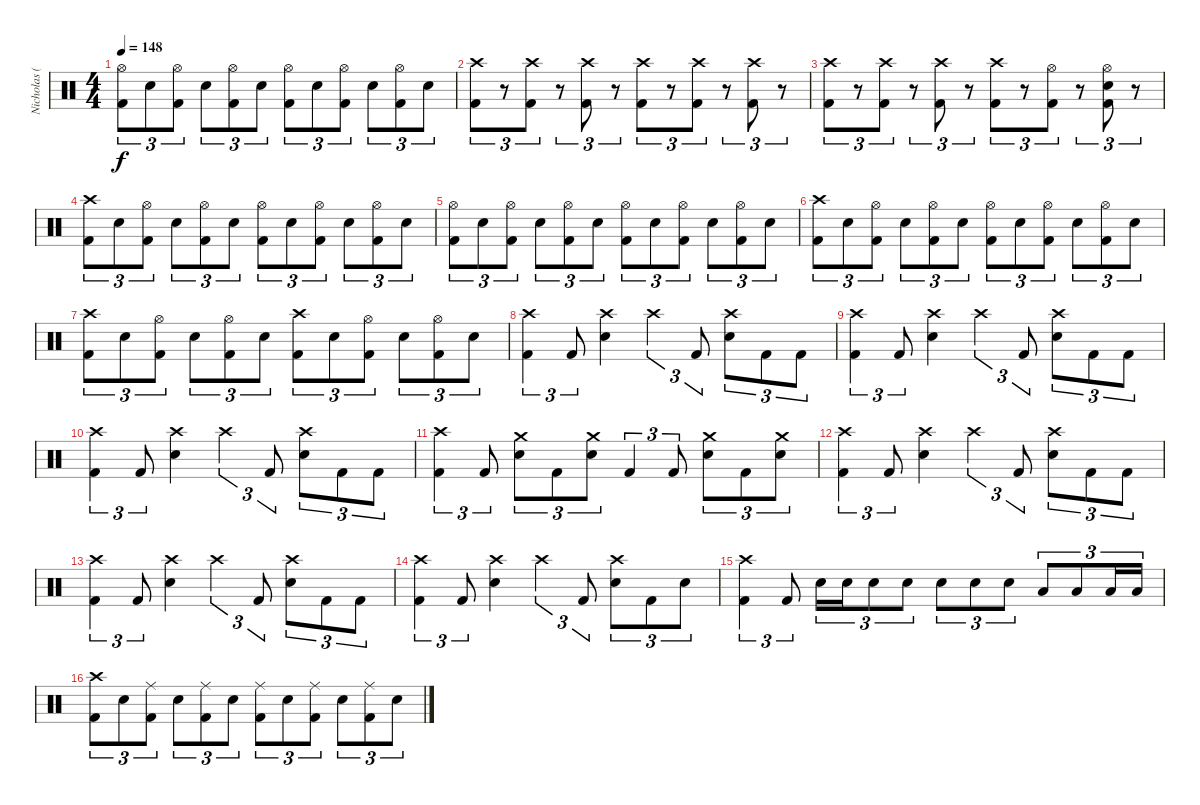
\track ("Nicholas (Drums)" "Nicholas (") {instrument percussion}
\staff {score}
\articulation defaults
\ts (4 4)
\tempo 148
\clef neutral
\ks c
("Hi-Hat (open)" "Kick (hit) 2").8{tu (3 2) dy f} "Electric Snare (hit)".8{tu (3 2)} ("Hi-Hat (open)" "Kick (hit) 2").8{tu (3 2)} "Electric Snare (hit)".8{tu (3 2)} ("Hi-Hat (open)" "Kick (hit) 2").8{tu (3 2)} "Electric Snare (hit)".8{tu (3 2)} ("Hi-Hat (open)" "Kick (hit) 2").8{tu (3 2)} "Electric Snare (hit)".8{tu (3 2)} ("Hi-Hat (open)" "Kick (hit) 2").8{tu (3 2)} "Electric Snare (hit)".8{tu (3 2)} ("Hi-Hat (open)" "Kick (hit) 2").8{tu (3 2)} "Electric Snare (hit)".8{tu (3 2)} |
("Crash high (hit)" "Kick (hit) 2").8{tu (3 2)} r.8{tu (3 2)} ("Crash high (hit)" "Kick (hit) 2").8{tu (3 2)} r.8{tu (3 2)} ("Crash high (hit)" "Kick (hit) 2").8{tu (3 2)} r.8{tu (3 2)} ("Crash high (hit)" "Kick (hit) 2").8{tu (3 2)} r.8{tu (3 2)} ("Crash high (hit)" "Kick (hit) 2").8{tu (3 2)} r.8{tu (3 2)} ("Crash high (hit)" "Kick (hit) 2").8{tu (3 2)} r.8{tu (3 2)} |
("Crash high (hit)" "Kick (hit) 2").8{tu (3 2)} r.8{tu (3 2)} ("Crash high (hit)" "Kick (hit) 2").8{tu (3 2)} r.8{tu (3 2)} ("Crash high (hit)" "Kick (hit) 2").8{tu (3 2)} r.8{tu (3 2)} ("Crash high (hit)" "Kick (hit) 2").8{tu (3 2)} r.8{tu (3 2)} ("Hi-Hat (open)" "Kick (hit) 2").8{tu (3 2)} r.8{tu (3 2)} ("Hi-Hat (open)" "Electric Snare (hit)" "Kick (hit) 2").8{tu (3 2)} r.8{tu (3 2)} |
("Crash high (hit)" "Kick (hit) 2").8{tu (3 2)} "Electric Snare (hit)".8{tu (3 2)} ("Hi-Hat (open)" "Kick (hit) 2").8{tu (3 2)} "Electric Snare (hit)".8{tu (3 2)} ("Hi-Hat (open)" "Kick (hit) 2").8{tu (3 2)} "Electric Snare (hit)".8{tu (3 2)} ("Hi-Hat (open)" "Kick (hit) 2").8{tu (3 2)} "Electric Snare (hit)".8{tu (3 2)} ("Hi-Hat (open)" "Kick (hit) 2").8{tu (3 2)} "Electric Snare (hit)".8{tu (3 2)} ("Hi-Hat (open)" "Kick (hit) 2").8{tu (3 2)} "Electric Snare (hit)".8{tu (3 2)} |
("Hi-Hat (open)" "Kick (hit) 2").8{tu (3 2)} "Electric Snare (hit)".8{tu (3 2)} ("Hi-Hat (open)" "Kick (hit) 2").8{tu (3 2)} "Electric Snare (hit)".8{tu (3 2)} ("Hi-Hat (open)" "Kick (hit) 2").8{tu (3 2)} "Electric Snare (hit)".8{tu (3 2)} ("Hi-Hat (open)" "Kick (hit) 2").8{tu (3 2)} "Electric Snare (hit)".8{tu (3 2)} ("Hi-Hat (open)" "Kick (hit) 2").8{tu (3 2)} "Electric Snare (hit)".8{tu (3 2)} ("Hi-Hat (open)" "Kick (hit) 2").8{tu (3 2)} "Electric Snare (hit)".8{tu (3 2)} |
("Crash high (hit)" "Kick (hit) 2").8{tu (3 2)} "Electric Snare (hit)".8{tu (3 2)} ("Hi-Hat (open)" "Kick (hit) 2").8{tu (3 2)} "Electric Snare (hit)".8{tu (3 2)} ("Hi-Hat (open)" "Kick (hit) 2").8{tu (3 2)} "Electric Snare (hit)".8{tu (3 2)} ("Hi-Hat (open)" "Kick (hit) 2").8{tu (3 2)} "Electric Snare (hit)".8{tu (3 2)} ("Hi-Hat (open)" "Kick (hit) 2").8{tu (3 2)} "Electric Snare (hit)".8{tu (3 2)} ("Hi-Hat (open)" "Kick (hit) 2").8{tu (3 2)} "Electric Snare (hit)".8{tu (3 2)} |
("Crash high (hit)" "Kick (hit) 2").8{tu (3 2)} "Electric Snare (hit)".8{tu (3 2)} ("Hi-Hat (open)" "Kick (hit) 2").8{tu (3 2)} "Electric Snare (hit)".8{tu (3 2)} ("Hi-Hat (open)" "Kick (hit) 2").8{tu (3 2)} "Electric Snare (hit)".8{tu (3 2)} ("Crash high (hit)" "Kick (hit) 2").8{tu (3 2)} "Electric Snare (hit)".8{tu (3 2)} ("Hi-Hat (open)" "Kick (hit) 2").8{tu (3 2)} "Electric Snare (hit)".8{tu (3 2)} ("Hi-Hat (open)" "Kick (hit) 2").8{tu (3 2)} "Electric Snare (hit)".8{tu (3 2)} |
("Crash high (hit)" "Kick (hit) 2").4{tu (3 2)} "Kick (hit) 2".8{tu (3 2)} ("Crash high (hit)" "Electric Snare (hit)").4 "Crash high (hit)".4{tu (3 2)} "Kick (hit) 2".8{tu (3 2)} ("Crash high (hit)" "Electric Snare (hit)").8{tu (3 2)} "Kick (hit) 2".8{tu (3 2)} "Kick (hit) 2".8{tu (3 2)} |
("Crash high (hit)" "Kick (hit) 2").4{tu (3 2)} "Kick (hit) 2".8{tu (3 2)} ("Crash high (hit)" "Electric Snare (hit)").4 "Crash high (hit)".4{tu (3 2)} "Kick (hit) 2".8{tu (3 2)} ("Crash high (hit)" "Electric Snare (hit)").8{tu (3 2)} "Kick (hit) 2".8{tu (3 2)} "Kick (hit) 2".8{tu (3 2)} |
("Crash high (hit)" "Kick (hit) 2").4{tu (3 2)} "Kick (hit) 2".8{tu (3 2)} ("Crash high (hit)" "Electric Snare (hit)").4 "Crash high (hit)".4{tu (3 2)} "Kick (hit) 2".8{tu (3 2)} ("Crash high (hit)" "Electric Snare (hit)").8{tu (3 2)} "Kick (hit) 2".8{tu (3 2)} "Kick (hit) 2".8{tu (3 2)} |
("Crash high (hit)" "Kick (hit) 2").4{tu (3 2)} "Kick (hit) 2".8{tu (3 2)} ("Crash medium (hit)" "Electric Snare (hit)").8{tu (3 2)} "Kick (hit) 2".8{tu (3 2)} ("Crash medium (hit)" "Electric Snare (hit)").8{tu (3 2)} "Kick (hit) 2".4{tu (3 2)} "Kick (hit) 2".8{tu (3 2)} ("Crash medium (hit)" "Electric Snare (hit)").8{tu (3 2)} "Kick (hit) 2".8{tu (3 2)} ("Crash medium (hit)" "Electric Snare (hit)").8{tu (3 2)} |
("Crash high (hit)" "Kick (hit) 2").4{tu (3 2)} "Kick (hit) 2".8{tu (3 2)} ("Crash high (hit)" "Electric Snare (hit)").4 "Crash high (hit)".4{tu (3 2)} "Kick (hit) 2".8{tu (3 2)} ("Crash high (hit)" "Electric Snare (hit)").8{tu (3 2)} "Kick (hit) 2".8{tu (3 2)} "Kick (hit) 2".8{tu (3 2)} |
("Crash high (hit)" "Kick (hit) 2").4{tu (3 2)} "Kick (hit) 2".8{tu (3 2)} ("Crash high (hit)" "Electric Snare (hit)").4 "Crash high (hit)".4{tu (3 2)} "Kick (hit) 2".8{tu (3 2)} ("Crash high (hit)" "Electric Snare (hit)").8{tu (3 2)} "Kick (hit) 2".8{tu (3 2)} "Kick (hit) 2".8{tu (3 2)} |
("Crash high (hit)" "Kick (hit) 2").4{tu (3 2)} "Kick (hit) 2".8{tu (3 2)} ("Crash high (hit)" "Electric Snare (hit)").4 "Crash high (hit)".4{tu (3 2)} "Kick (hit) 2".8{tu (3 2)} ("Crash high (hit)" "Electric Snare (hit)").8{tu (3 2)} "Kick (hit) 2".8{tu (3 2)} "Electric Snare (hit)".8{tu (3 2)} |
("Crash high (hit)" "Kick (hit) 2").4{tu (3 2)} "Kick (hit) 2".8{tu (3 2)} "Electric Snare (hit)".16{tu (3 2)} "Electric Snare (hit)".16{tu (3 2)} "Electric Snare (hit)".8{tu (3 2)} "Electric Snare (hit)".8{tu (3 2)} "Electric Snare (hit)".8{tu (3 2)} "Electric Snare (hit)".8{tu (3 2)} "Electric Snare (hit)".8{tu (3 2)} "Low Tom (hit)".8{tu (3 2)} "Low Tom (hit)".8{tu (3 2)} "Low Floor Tom (hit)".16{tu (3 2)} "Low Floor Tom (hit)".16{tu (3 2)} |
("Crash high (hit)" "Kick (hit) 2").8{tu (3 2)} "Electric Snare (hit)".8{tu (3 2)} ("Ride (middle)" "Kick (hit) 2").8{tu (3 2)} "Electric Snare (hit)".8{tu (3 2)} ("Ride (middle)" "Kick (hit) 2").8{tu (3 2)} "Electric Snare (hit)".8{tu (3 2)} ("Ride (middle)" "Kick (hit) 2").8{tu (3 2)} "Electric Snare (hit)".8{tu (3 2)} ("Ride (middle)" "Kick (hit) 2").8{tu (3 2)} "Electric Snare (hit)".8{tu (3 2)} ("Ride (middle)" "Kick (hit) 2").8{tu (3 2)} "Electric Snare (hit)".8{tu (3 2)}
